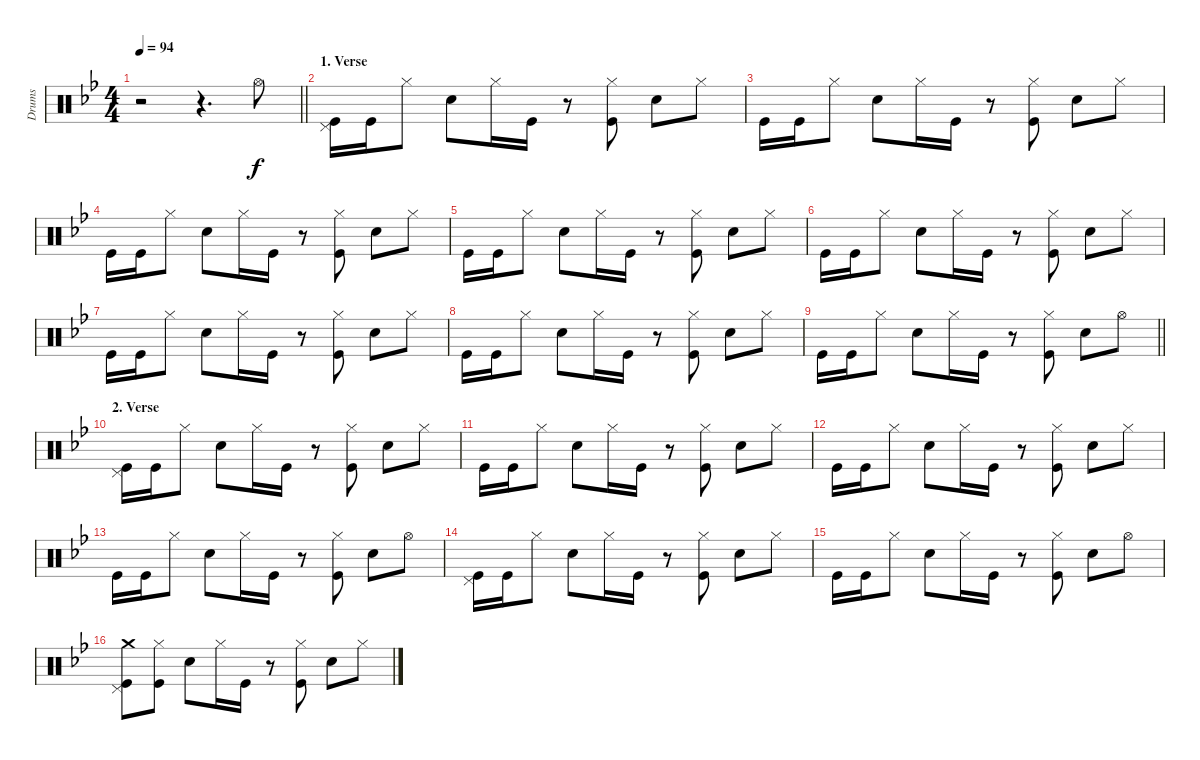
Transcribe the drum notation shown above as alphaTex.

\track ("Drums" "Drums") {instrument percussion}
\staff {score}
\articulation defaults
\ts (4 4)
\tempo 94
\clef neutral
\barLineRight lightlight
\ks gminor
r.2{dy f} r.4{d} "Hi-Hat (open)".8 |
\section ("" "1. Verse")
("Pedal Hi-Hat (hit)" "Kick (hit)").16 "Kick (hit)".16 "Hi-Hat (closed)".8 "Electric Snare (hit)".8 "Hi-Hat (closed)".16 "Kick (hit)".16 r.8 ("Hi-Hat (closed)" "Kick (hit)").8 "Electric Snare (hit)".8 "Hi-Hat (closed)".8 |
"Kick (hit)".16 "Kick (hit)".16 "Hi-Hat (closed)".8 "Electric Snare (hit)".8 "Hi-Hat (closed)".16 "Kick (hit)".16 r.8 ("Hi-Hat (closed)" "Kick (hit)").8 "Electric Snare (hit)".8 "Hi-Hat (closed)".8 |
"Kick (hit)".16 "Kick (hit)".16 "Hi-Hat (closed)".8 "Electric Snare (hit)".8 "Hi-Hat (closed)".16 "Kick (hit)".16 r.8 ("Hi-Hat (closed)" "Kick (hit)").8 "Electric Snare (hit)".8 "Hi-Hat (closed)".8 |
"Kick (hit)".16 "Kick (hit)".16 "Hi-Hat (closed)".8 "Electric Snare (hit)".8 "Hi-Hat (closed)".16 "Kick (hit)".16 r.8 ("Hi-Hat (closed)" "Kick (hit)").8 "Electric Snare (hit)".8 "Hi-Hat (closed)".8 |
"Kick (hit)".16 "Kick (hit)".16 "Hi-Hat (closed)".8 "Electric Snare (hit)".8 "Hi-Hat (closed)".16 "Kick (hit)".16 r.8 ("Hi-Hat (closed)" "Kick (hit)").8 "Electric Snare (hit)".8 "Hi-Hat (closed)".8 |
"Kick (hit)".16 "Kick (hit)".16 "Hi-Hat (closed)".8 "Electric Snare (hit)".8 "Hi-Hat (closed)".16 "Kick (hit)".16 r.8 ("Hi-Hat (closed)" "Kick (hit)").8 "Electric Snare (hit)".8 "Hi-Hat (closed)".8 |
"Kick (hit)".16 "Kick (hit)".16 "Hi-Hat (closed)".8 "Electric Snare (hit)".8 "Hi-Hat (closed)".16 "Kick (hit)".16 r.8 ("Hi-Hat (closed)" "Kick (hit)").8 "Electric Snare (hit)".8 "Hi-Hat (closed)".8 |
\barLineRight lightlight "Kick (hit)".16 "Kick (hit)".16 "Hi-Hat (closed)".8 "Electric Snare (hit)".8 "Hi-Hat (closed)".16 "Kick (hit)".16
r.8 ("Hi-Hat (closed)" "Kick (hit)").8 "Electric Snare (hit)".8 "Hi-Hat (open)".8 |
\section ("" "2. Verse")
("Pedal Hi-Hat (hit)" "Kick (hit)").16 "Kick (hit)".16 "Hi-Hat (closed)".8 "Electric Snare (hit)".8 "Hi-Hat (closed)".16 "Kick (hit)".16 r.8 ("Hi-Hat (closed)" "Kick (hit)").8 "Electric Snare (hit)".8 "Hi-Hat (closed)".8 |
"Kick (hit)".16 "Kick (hit)".16 "Hi-Hat (closed)".8 "Electric Snare (hit)".8 "Hi-Hat (closed)".16 "Kick (hit)".16 r.8 ("Hi-Hat (closed)" "Kick (hit)").8 "Electric Snare (hit)".8 "Hi-Hat (closed)".8 |
"Kick (hit)".16 "Kick (hit)".16 "Hi-Hat (closed)".8 "Electric Snare (hit)".8 "Hi-Hat (closed)".16 "Kick (hit)".16 r.8 ("Hi-Hat (closed)" "Kick (hit)").8 "Electric Snare (hit)".8 "Hi-Hat (closed)".8 |
"Kick (hit)".16 "Kick (hit)".16 "Hi-Hat (closed)".8 "Electric Snare (hit)".8 "Hi-Hat (closed)".16 "Kick (hit)".16 r.8 ("Hi-Hat (closed)" "Kick (hit)").8 "Electric Snare (hit)".8 "Hi-Hat (open)".8 |
("Pedal Hi-Hat (hit)" "Kick (hit)").16 "Kick (hit)".16 "Hi-Hat (closed)".8 "Electric Snare (hit)".8 "Hi-Hat (closed)".16 "Kick (hit)".16 r.8 ("Hi-Hat (closed)" "Kick (hit)").8 "Electric Snare (hit)".8 "Hi-Hat (closed)".8 |
"Kick (hit)".16 "Kick (hit)".16 "Hi-Hat (closed)".8 "Electric Snare (hit)".8 "Hi-Hat (closed)".16 "Kick (hit)".16 r.8 ("Hi-Hat (closed)" "Kick (hit)").8 "Electric Snare (hit)".8 "Hi-Hat (open)".8 |
("Pedal Hi-Hat (hit)" "Crash medium (hit)" "Kick (hit)").8 ("Hi-Hat (closed)" "Kick (hit)").8 "Electric Snare (hit)".8 "Hi-Hat (closed)".16 "Kick (hit)".16 r.8 ("Hi-Hat (closed)" "Kick (hit)").8 "Electric Snare (hit)".8 "Hi-Hat (closed)".8
